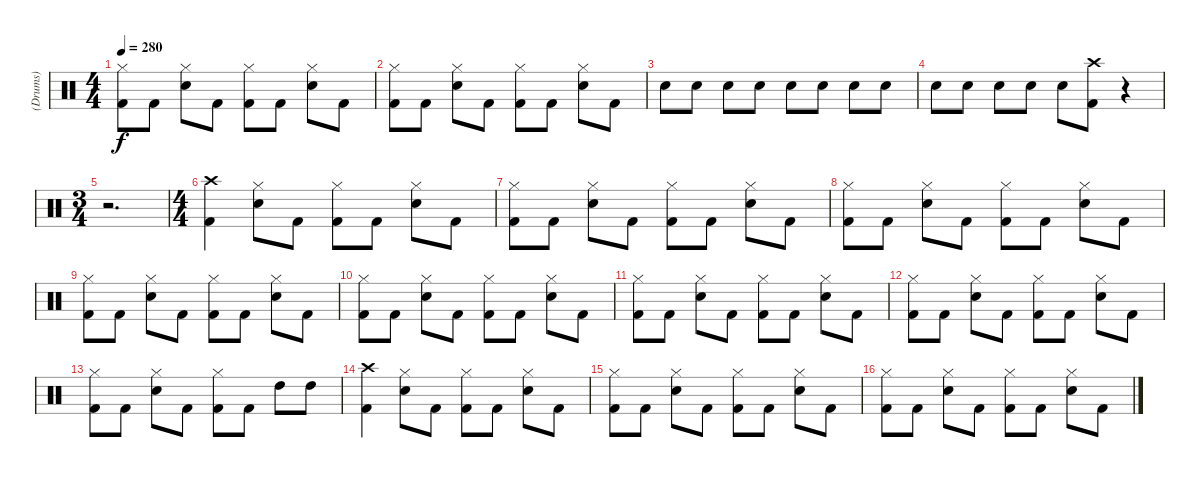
\track ("(Drums)" "(Drums)") {instrument percussion}
\staff {score}
\articulation defaults
\ts (4 4)
\tempo 280
\clef neutral
\ks c
("Hi-Hat (closed)" "Kick (hit) 2").8{dy f} "Kick (hit) 2".8 ("Hi-Hat (closed)" "Snare (hit) 2").8 "Kick (hit) 2".8 ("Hi-Hat (closed)" "Kick (hit) 2").8 "Kick (hit) 2".8 ("Hi-Hat (closed)" "Snare (hit) 2").8 "Kick (hit) 2".8 |
("Hi-Hat (closed)" "Kick (hit) 2").8 "Kick (hit) 2".8 ("Hi-Hat (closed)" "Snare (hit) 2").8 "Kick (hit) 2".8 ("Hi-Hat (closed)" "Kick (hit) 2").8 "Kick (hit) 2".8 ("Hi-Hat (closed)" "Snare (hit) 2").8 "Kick (hit) 2".8 |
"Snare (hit) 2".8 "Snare (hit) 2".8 "Snare (hit) 2".8 "Snare (hit) 2".8 "Snare (hit) 2".8 "Snare (hit) 2".8 "Snare (hit) 2".8 "Snare (hit) 2".8 |
"Snare (hit) 2".8 "Snare (hit) 2".8 "Snare (hit) 2".8 "Snare (hit) 2".8 "Snare (hit) 2".8 ("Kick (hit) 2" "Crash high (hit)").8 r.4 |
\ts (3 4)
r.2{d} |
\ts (4 4)
("Kick (hit) 2" "Crash high (hit)").4 ("Hi-Hat (closed)" "Snare (hit) 2").8 "Kick (hit) 2".8 ("Hi-Hat (closed)" "Kick (hit) 2").8 "Kick (hit) 2".8 ("Hi-Hat (closed)" "Snare (hit) 2").8 "Kick (hit) 2".8 |
("Hi-Hat (closed)" "Kick (hit) 2").8 "Kick (hit) 2".8 ("Hi-Hat (closed)" "Snare (hit) 2").8 "Kick (hit) 2".8 ("Hi-Hat (closed)" "Kick (hit) 2").8 "Kick (hit) 2".8 ("Hi-Hat (closed)" "Snare (hit) 2").8 "Kick (hit) 2".8 |
("Hi-Hat (closed)" "Kick (hit) 2").8 "Kick (hit) 2".8 ("Hi-Hat (closed)" "Snare (hit) 2").8 "Kick (hit) 2".8 ("Hi-Hat (closed)" "Kick (hit) 2").8 "Kick (hit) 2".8 ("Hi-Hat (closed)" "Snare (hit) 2").8 "Kick (hit) 2".8 |
("Hi-Hat (closed)" "Kick (hit) 2").8 "Kick (hit) 2".8 ("Hi-Hat (closed)" "Snare (hit) 2").8 "Kick (hit) 2".8 ("Hi-Hat (closed)" "Kick (hit) 2").8 "Kick (hit) 2".8 ("Hi-Hat (closed)" "Snare (hit) 2").8 "Kick (hit) 2".8 |
("Hi-Hat (closed)" "Kick (hit) 2").8 "Kick (hit) 2".8 ("Hi-Hat (closed)" "Snare (hit) 2").8 "Kick (hit) 2".8 ("Hi-Hat (closed)" "Kick (hit) 2").8 "Kick (hit) 2".8 ("Hi-Hat (closed)" "Snare (hit) 2").8 "Kick (hit) 2".8 |
("Hi-Hat (closed)" "Kick (hit) 2").8 "Kick (hit) 2".8 ("Hi-Hat (closed)" "Snare (hit) 2").8 "Kick (hit) 2".8 ("Hi-Hat (closed)" "Kick (hit) 2").8 "Kick (hit) 2".8 ("Hi-Hat (closed)" "Snare (hit) 2").8 "Kick (hit) 2".8 |
("Hi-Hat (closed)" "Kick (hit) 2").8 "Kick (hit) 2".8 ("Hi-Hat (closed)" "Snare (hit) 2").8 "Kick (hit) 2".8 ("Hi-Hat (closed)" "Kick (hit) 2").8 "Kick (hit) 2".8 ("Hi-Hat (closed)" "Snare (hit) 2").8 "Kick (hit) 2".8 |
("Hi-Hat (closed)" "Kick (hit) 2").8 "Kick (hit) 2".8 ("Hi-Hat (closed)" "Snare (hit) 2").8 "Kick (hit) 2".8 ("Hi-Hat (closed)" "Kick (hit) 2").8 "Kick (hit) 2".8 "High Tom (hit)".8 "High Tom (hit)".8 |
("Kick (hit) 2" "Crash high (hit)").4 ("Hi-Hat (closed)" "Snare (hit) 2").8 "Kick (hit) 2".8 ("Hi-Hat (closed)" "Kick (hit) 2").8 "Kick (hit) 2".8 ("Hi-Hat (closed)" "Snare (hit) 2").8 "Kick (hit) 2".8 |
("Hi-Hat (closed)" "Kick (hit) 2").8 "Kick (hit) 2".8 ("Hi-Hat (closed)" "Snare (hit) 2").8 "Kick (hit) 2".8 ("Hi-Hat (closed)" "Kick (hit) 2").8 "Kick (hit) 2".8 ("Hi-Hat (closed)" "Snare (hit) 2").8 "Kick (hit) 2".8 |
("Hi-Hat (closed)" "Kick (hit) 2").8 "Kick (hit) 2".8 ("Hi-Hat (closed)" "Snare (hit) 2").8 "Kick (hit) 2".8 ("Hi-Hat (closed)" "Kick (hit) 2").8 "Kick (hit) 2".8 ("Hi-Hat (closed)" "Snare (hit) 2").8 "Kick (hit) 2".8
